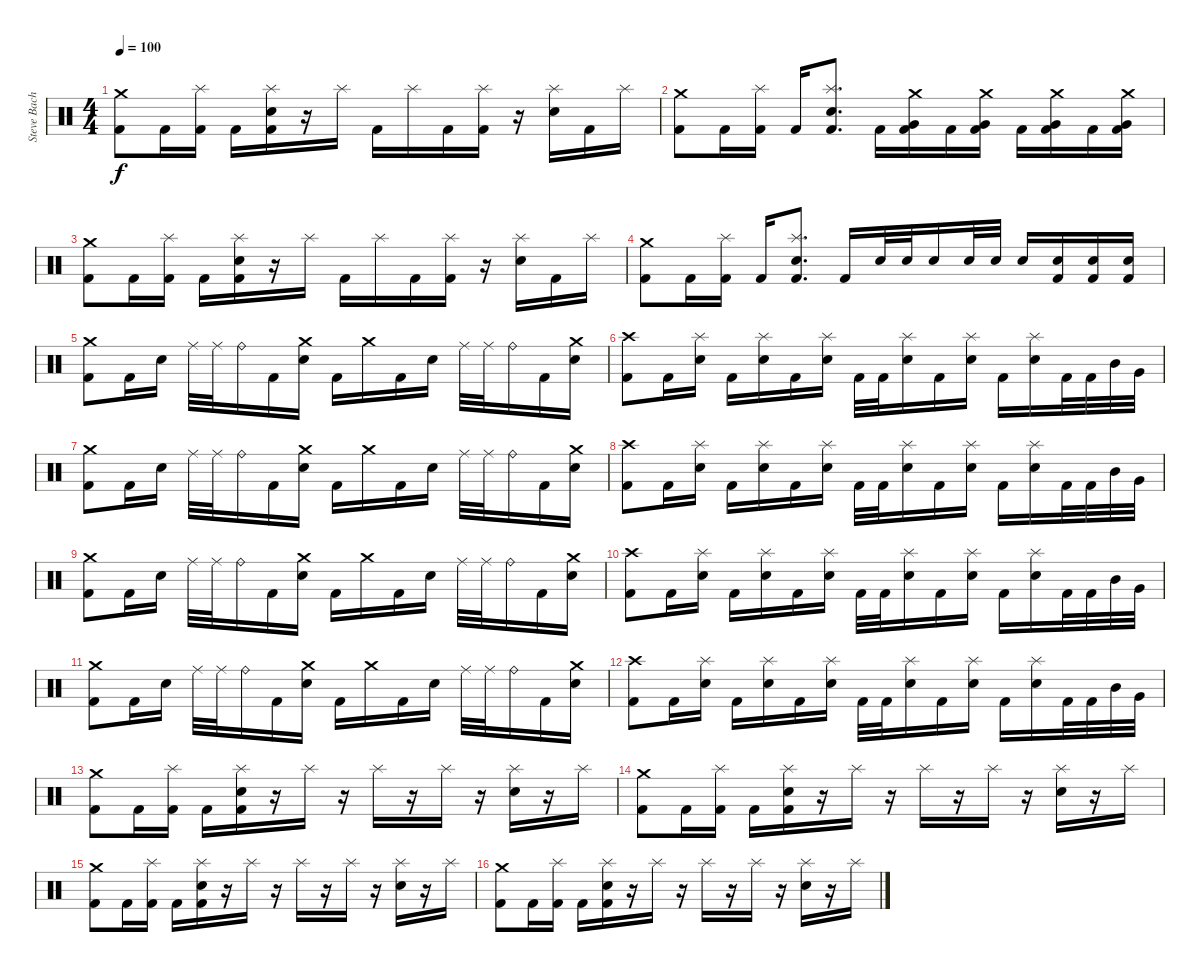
\track ("Steve Bache" "Steve Bach") {instrument percussion}
\staff {score}
\articulation defaults
\ts (4 4)
\tempo 100
\clef neutral
\ks c
("Crash medium (hit)" "Kick (hit) 2").8{dy f} "Kick (hit) 2".16 ("Splash (hit)" "Kick (hit) 2").16 "Kick (hit) 2".16 ("Splash (hit)" "Electric Snare (hit)" "Kick (hit) 2").16 r.16 "Splash (hit)".16 "Kick (hit) 2".16 "Splash (hit)".16 "Kick (hit) 2".16 ("Splash (hit)" "Kick (hit) 2").16 r.16 ("Splash (hit)" "Electric Snare (hit)").16 "Kick (hit) 2".16 "Splash (hit)".16 |
("Crash medium (hit)" "Kick (hit) 2").8 "Kick (hit) 2".16 ("Splash (hit)" "Kick (hit) 2").16 "Kick (hit) 2".16 ("Splash (hit)" "Electric Snare (hit)" "Kick (hit) 2").8{d} "Kick (hit) 2".16 ("Crash medium (hit)" "Very Low Tom (hit)" "Kick (hit) 2").16 "Kick (hit) 2".16 ("Crash medium (hit)" "Very Low Tom (hit)" "Kick (hit) 2").16 "Kick (hit) 2".16 ("Crash medium (hit)" "Very Low Tom (hit)" "Kick (hit) 2").16 "Kick (hit) 2".16 ("Crash medium (hit)" "Very Low Tom (hit)" "Kick (hit) 2").16 |
("Crash medium (hit)" "Kick (hit) 2").8 "Kick (hit) 2".16 ("Splash (hit)" "Kick (hit) 2").16 "Kick (hit) 2".16 ("Splash (hit)" "Electric Snare (hit)" "Kick (hit) 2").16 r.16 "Splash (hit)".16 "Kick (hit) 2".16 "Splash (hit)".16 "Kick (hit) 2".16 ("Splash (hit)" "Kick (hit) 2").16 r.16 ("Splash (hit)" "Electric Snare (hit)").16 "Kick (hit) 2".16 "Splash (hit)".16 |
("Crash medium (hit)" "Kick (hit) 2").8 "Kick (hit) 2".16 ("Splash (hit)" "Kick (hit) 2").16 "Kick (hit) 2".16 ("Splash (hit)" "Electric Snare (hit)" "Kick (hit) 2").8{d} "Kick (hit) 2".16 "Electric Snare (hit)".32 "Electric Snare (hit)".32 "Electric Snare (hit)".16 "Electric Snare (hit)".32 "Electric Snare (hit)".32 "Electric Snare (hit)".16 ("Electric Snare (hit)" "Kick (hit) 2").16 ("Electric Snare (hit)" "Kick (hit) 2").16 ("Electric Snare (hit)" "Kick (hit) 2").16 |
("Crash medium (hit)" "Kick (hit) 2").8 "Kick (hit) 2".16 "Electric Snare (hit)".16 "Ride (middle)".32 "Ride (middle)".32 "Ride (bell)".16 "Kick (hit) 2".16 ("Crash medium (hit)" "Electric Snare (hit)").16 "Kick (hit) 2".16 "Crash medium (hit)".16 "Kick (hit) 2".16 "Electric Snare (hit)".16 "Ride (middle)".32 "Ride (middle)".32 "Ride (bell)".16 "Kick (hit) 2".16 ("Crash medium (hit)" "Electric Snare (hit)").16 |
("Crash high (hit)" "Kick (hit) 2").8 "Kick (hit) 2".16 ("Splash (hit)" "Electric Snare (hit)").16 "Kick (hit) 2".16 ("Splash (hit)" "Electric Snare (hit)").16 "Kick (hit) 2".16 ("Splash (hit)" "Electric Snare (hit)").16 "Kick (hit) 2".32 "Kick (hit) 2".32 ("Splash (hit)" "Electric Snare (hit)").16 "Kick (hit) 2".16 ("Splash (hit)" "Electric Snare (hit)").16 "Kick (hit) 2".16 ("Splash (hit)" "Electric Snare (hit)").16 "Kick (hit) 2".32 "Kick (hit) 2".32 "Mid Tom (hit)".32 "Very Low Tom (hit)".32 |
("Crash medium (hit)" "Kick (hit) 2").8 "Kick (hit) 2".16 "Electric Snare (hit)".16 "Ride (middle)".32 "Ride (middle)".32 "Ride (bell)".16 "Kick (hit) 2".16 ("Crash medium (hit)" "Electric Snare (hit)").16 "Kick (hit) 2".16 "Crash medium (hit)".16 "Kick (hit) 2".16 "Electric Snare (hit)".16 "Ride (middle)".32 "Ride (middle)".32 "Ride (bell)".16 "Kick (hit) 2".16 ("Crash medium (hit)" "Electric Snare (hit)").16 |
("Crash high (hit)" "Kick (hit) 2").8 "Kick (hit) 2".16 ("Splash (hit)" "Electric Snare (hit)").16 "Kick (hit) 2".16 ("Splash (hit)" "Electric Snare (hit)").16 "Kick (hit) 2".16 ("Splash (hit)" "Electric Snare (hit)").16 "Kick (hit) 2".32 "Kick (hit) 2".32 ("Splash (hit)" "Electric Snare (hit)").16 "Kick (hit) 2".16 ("Splash (hit)" "Electric Snare (hit)").16 "Kick (hit) 2".16 ("Splash (hit)" "Electric Snare (hit)").16 "Kick (hit) 2".32 "Kick (hit) 2".32 "Mid Tom (hit)".32 "Very Low Tom (hit)".32 |
("Crash medium (hit)" "Kick (hit) 2").8 "Kick (hit) 2".16 "Electric Snare (hit)".16 "Ride (middle)".32 "Ride (middle)".32 "Ride (bell)".16 "Kick (hit) 2".16 ("Crash medium (hit)" "Electric Snare (hit)").16 "Kick (hit) 2".16 "Crash medium (hit)".16 "Kick (hit) 2".16 "Electric Snare (hit)".16 "Ride (middle)".32 "Ride (middle)".32 "Ride (bell)".16 "Kick (hit) 2".16 ("Crash medium (hit)" "Electric Snare (hit)").16 |
("Crash high (hit)" "Kick (hit) 2").8 "Kick (hit) 2".16 ("Splash (hit)" "Electric Snare (hit)").16 "Kick (hit) 2".16 ("Splash (hit)" "Electric Snare (hit)").16 "Kick (hit) 2".16 ("Splash (hit)" "Electric Snare (hit)").16 "Kick (hit) 2".32 "Kick (hit) 2".32 ("Splash (hit)" "Electric Snare (hit)").16 "Kick (hit) 2".16 ("Splash (hit)" "Electric Snare (hit)").16 "Kick (hit) 2".16 ("Splash (hit)" "Electric Snare (hit)").16 "Kick (hit) 2".32 "Kick (hit) 2".32 "Mid Tom (hit)".32 "Very Low Tom (hit)".32 |
("Crash medium (hit)" "Kick (hit) 2").8 "Kick (hit) 2".16 "Electric Snare (hit)".16 "Ride (middle)".32 "Ride (middle)".32 "Ride (bell)".16 "Kick (hit) 2".16 ("Crash medium (hit)" "Electric Snare (hit)").16 "Kick (hit) 2".16 "Crash medium (hit)".16 "Kick (hit) 2".16 "Electric Snare (hit)".16 "Ride (middle)".32 "Ride (middle)".32 "Ride (bell)".16 "Kick (hit) 2".16 ("Crash medium (hit)" "Electric Snare (hit)").16 |
("Crash high (hit)" "Kick (hit) 2").8 "Kick (hit) 2".16 ("Splash (hit)" "Electric Snare (hit)").16 "Kick (hit) 2".16 ("Splash (hit)" "Electric Snare (hit)").16 "Kick (hit) 2".16 ("Splash (hit)" "Electric Snare (hit)").16 "Kick (hit) 2".32 "Kick (hit) 2".32 ("Splash (hit)" "Electric Snare (hit)").16 "Kick (hit) 2".16 ("Splash (hit)" "Electric Snare (hit)").16 "Kick (hit) 2".16 ("Splash (hit)" "Electric Snare (hit)").16 "Kick (hit) 2".32 "Kick (hit) 2".32 "Mid Tom (hit)".32 "Very Low Tom (hit)".32 |
("Crash medium (hit)" "Kick (hit) 2").8 "Kick (hit) 2".16 ("Splash (hit)" "Kick (hit) 2").16 "Kick (hit) 2".16 ("Splash (hit)" "Electric Snare (hit)" "Kick (hit) 2").16 r.16 "Splash (hit)".16 r.16 "Splash (hit)".16 r.16 "Splash (hit)".16 r.16 ("Splash (hit)" "Electric Snare (hit)").16 r.16 "Splash (hit)".16 |
("Crash medium (hit)" "Kick (hit) 2").8 "Kick (hit) 2".16 ("Splash (hit)" "Kick (hit) 2").16 "Kick (hit) 2".16 ("Splash (hit)" "Electric Snare (hit)" "Kick (hit) 2").16 r.16 "Splash (hit)".16 r.16 "Splash (hit)".16 r.16 "Splash (hit)".16 r.16 ("Splash (hit)" "Electric Snare (hit)").16 r.16 "Splash (hit)".16 |
("Crash medium (hit)" "Kick (hit) 2").8 "Kick (hit) 2".16 ("Splash (hit)" "Kick (hit) 2").16 "Kick (hit) 2".16 ("Splash (hit)" "Electric Snare (hit)" "Kick (hit) 2").16 r.16 "Splash (hit)".16 r.16 "Splash (hit)".16 r.16 "Splash (hit)".16 r.16 ("Splash (hit)" "Electric Snare (hit)").16 r.16 "Splash (hit)".16 |
("Crash medium (hit)" "Kick (hit) 2").8 "Kick (hit) 2".16 ("Splash (hit)" "Kick (hit) 2").16 "Kick (hit) 2".16 ("Splash (hit)" "Electric Snare (hit)" "Kick (hit) 2").16 r.16 "Splash (hit)".16 r.16 "Splash (hit)".16 r.16 "Splash (hit)".16 r.16 ("Splash (hit)" "Electric Snare (hit)").16 r.16 "Splash (hit)".16
